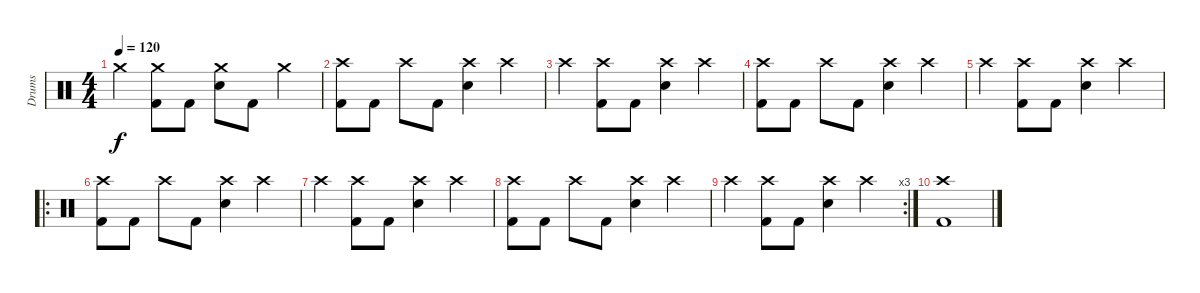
\track ("Drums" "Drums") {instrument percussion}
\staff {score}
\articulation defaults
\ts (4 4)
\tempo 120
\clef neutral
\ks c "Crash medium (hit)".4{dy f}
("Crash medium (hit)" "Kick (hit) 2").8 "Kick (hit) 2".8 ("Crash medium (hit)" "Snare (hit) 2").8 "Kick (hit) 2".8 "Crash medium (hit)".4 |
("Crash high (hit)" "Kick (hit) 2").8 "Kick (hit) 2".8 "Crash high (hit)".8 "Kick (hit) 2".8 ("Crash high (hit)" "Snare (hit) 2").4 "Crash high (hit)".4 |
"Crash high (hit)".4 ("Crash high (hit)" "Kick (hit) 2").8 "Kick (hit) 2".8 ("Crash high (hit)" "Snare (hit) 2").4 "Crash high (hit)".4 |
("Crash high (hit)" "Kick (hit) 2").8 "Kick (hit) 2".8 "Crash high (hit)".8 "Kick (hit) 2".8 ("Crash high (hit)" "Snare (hit) 2").4 "Crash high (hit)".4 |
"Crash high (hit)".4 ("Crash high (hit)" "Kick (hit) 2").8 "Kick (hit) 2".8 ("Crash high (hit)" "Snare (hit) 2").4 "Crash high (hit)".4 |
\ro
("Crash high (hit)" "Kick (hit) 2").8 "Kick (hit) 2".8 "Crash high (hit)".8 "Kick (hit) 2".8 ("Crash high (hit)" "Snare (hit) 2").4 "Crash high (hit)".4 |
"Crash high (hit)".4 ("Crash high (hit)" "Kick (hit) 2").8 "Kick (hit) 2".8 ("Crash high (hit)" "Snare (hit) 2").4 "Crash high (hit)".4 |
("Crash high (hit)" "Kick (hit) 2").8 "Kick (hit) 2".8 "Crash high (hit)".8 "Kick (hit) 2".8 ("Crash high (hit)" "Snare (hit) 2").4 "Crash high (hit)".4 |
\rc 3 "Crash high (hit)".4
("Crash high (hit)" "Kick (hit) 2").8 "Kick (hit) 2".8 ("Crash high (hit)" "Snare (hit) 2").4 "Crash high (hit)".4 |
("Crash high (hit)" "Kick (hit) 2").1
